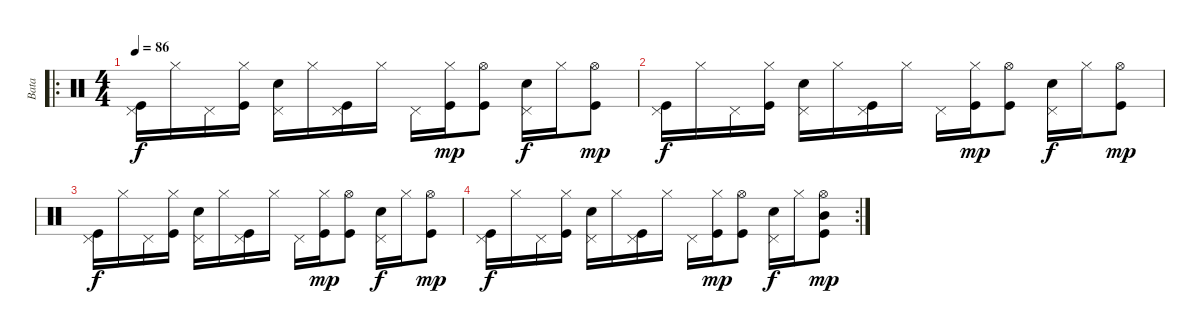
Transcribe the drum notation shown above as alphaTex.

\track ("Bata" "Bata") {instrument percussion}
\staff {score}
\articulation defaults
\ro
\ts (4 4)
\tempo 86
\clef neutral
\ks c
("Pedal Hi-Hat (hit)" "Kick (hit)").16{dy f} "Hi-Hat (closed)".16 "Pedal Hi-Hat (hit)".16 ("Hi-Hat (closed)" "Kick (hit)").16 ("Pedal Hi-Hat (hit)" "Electric Snare (hit)").16 "Hi-Hat (closed)".16 ("Pedal Hi-Hat (hit)" "Kick (hit)").16 "Hi-Hat (closed)".16 "Pedal Hi-Hat (hit)".16 ("Hi-Hat (closed)" "Kick (hit)").16{dy mp} ("Hi-Hat (open)" "Kick (hit)").8 ("Pedal Hi-Hat (hit)" "Electric Snare (hit)").16{dy f} "Hi-Hat (closed)".16 ("Hi-Hat (open)" "Kick (hit)").8{dy mp} |
("Pedal Hi-Hat (hit)" "Kick (hit)").16{dy f} "Hi-Hat (closed)".16 "Pedal Hi-Hat (hit)".16 ("Hi-Hat (closed)" "Kick (hit)").16 ("Pedal Hi-Hat (hit)" "Electric Snare (hit)").16 "Hi-Hat (closed)".16 ("Pedal Hi-Hat (hit)" "Kick (hit)").16 "Hi-Hat (closed)".16 "Pedal Hi-Hat (hit)".16 ("Hi-Hat (closed)" "Kick (hit)").16{dy mp} ("Hi-Hat (open)" "Kick (hit)").8 ("Pedal Hi-Hat (hit)" "Electric Snare (hit)").16{dy f} "Hi-Hat (closed)".16 ("Hi-Hat (open)" "Kick (hit)").8{dy mp} |
("Pedal Hi-Hat (hit)" "Kick (hit)").16{dy f} "Hi-Hat (closed)".16 "Pedal Hi-Hat (hit)".16 ("Hi-Hat (closed)" "Kick (hit)").16 ("Pedal Hi-Hat (hit)" "Electric Snare (hit)").16 "Hi-Hat (closed)".16 ("Pedal Hi-Hat (hit)" "Kick (hit)").16 "Hi-Hat (closed)".16 "Pedal Hi-Hat (hit)".16 ("Hi-Hat (closed)" "Kick (hit)").16{dy mp} ("Hi-Hat (open)" "Kick (hit)").8 ("Pedal Hi-Hat (hit)" "Electric Snare (hit)").16{dy f} "Hi-Hat (closed)".16 ("Hi-Hat (open)" "Kick (hit)").8{dy mp} |
\rc 2
("Pedal Hi-Hat (hit)" "Kick (hit)").16{dy f} "Hi-Hat (closed)".16 "Pedal Hi-Hat (hit)".16 ("Hi-Hat (closed)" "Kick (hit)").16 ("Pedal Hi-Hat (hit)" "Electric Snare (hit)").16 "Hi-Hat (closed)".16 ("Pedal Hi-Hat (hit)" "Kick (hit)").16 "Hi-Hat (closed)".16 "Pedal Hi-Hat (hit)".16 ("Hi-Hat (closed)" "Kick (hit)").16{dy mp} ("Hi-Hat (open)" "Kick (hit)").8 ("Pedal Hi-Hat (hit)" "Electric Snare (hit)").16{dy f} "Hi-Hat (closed)".16 ("Hi-Hat (open)" "Mid Tom (hit)" "Kick (hit)").8{dy mp}
